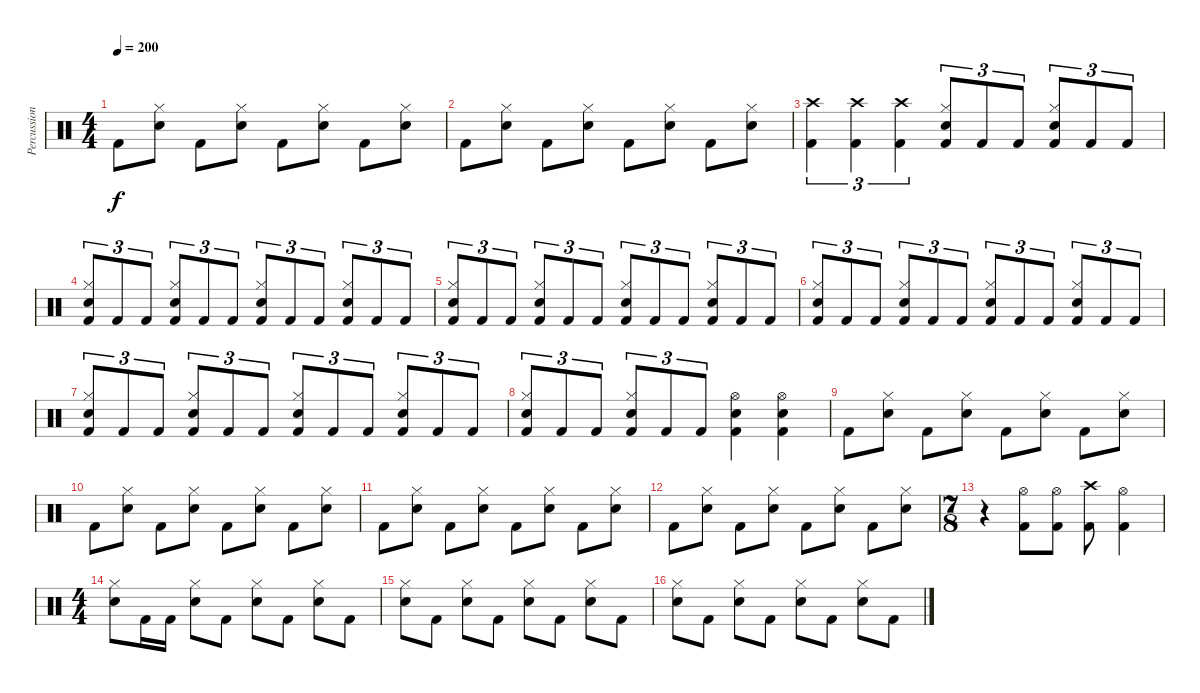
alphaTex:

\track ("Percussion" "Percussion") {instrument percussion}
\staff {score}
\articulation defaults
\ts (4 4)
\tempo 200
\clef neutral
\ks c "Kick (hit) 2".8{dy f}
("Hi-Hat (closed)" "Snare (hit) 2").8 "Kick (hit) 2".8 ("Hi-Hat (closed)" "Snare (hit) 2").8 "Kick (hit) 2".8 ("Hi-Hat (closed)" "Snare (hit) 2").8 "Kick (hit) 2".8 ("Hi-Hat (closed)" "Snare (hit) 2").8 |
"Kick (hit) 2".8 ("Hi-Hat (closed)" "Snare (hit) 2").8 "Kick (hit) 2".8 ("Hi-Hat (closed)" "Snare (hit) 2").8 "Kick (hit) 2".8 ("Hi-Hat (closed)" "Snare (hit) 2").8 "Kick (hit) 2".8 ("Hi-Hat (closed)" "Snare (hit) 2").8 |
("Crash high (hit)" "Kick (hit) 2").4{tu (3 2)} ("Crash high (hit)" "Kick (hit) 2").4{tu (3 2)} ("Crash high (hit)" "Kick (hit) 2").4{tu (3 2)} ("Hi-Hat (closed)" "Snare (hit) 2" "Kick (hit) 2").8{tu (3 2)} "Kick (hit) 2".8{tu (3 2)} "Kick (hit) 2".8{tu (3 2)} ("Hi-Hat (closed)" "Snare (hit) 2" "Kick (hit) 2").8{tu (3 2)} "Kick (hit) 2".8{tu (3 2)} "Kick (hit) 2".8{tu (3 2)} |
("Hi-Hat (closed)" "Snare (hit) 2" "Kick (hit) 2").8{tu (3 2)} "Kick (hit) 2".8{tu (3 2)} "Kick (hit) 2".8{tu (3 2)} ("Hi-Hat (closed)" "Snare (hit) 2" "Kick (hit) 2").8{tu (3 2)} "Kick (hit) 2".8{tu (3 2)} "Kick (hit) 2".8{tu (3 2)} ("Hi-Hat (closed)" "Snare (hit) 2" "Kick (hit) 2").8{tu (3 2)} "Kick (hit) 2".8{tu (3 2)} "Kick (hit) 2".8{tu (3 2)} ("Hi-Hat (closed)" "Snare (hit) 2" "Kick (hit) 2").8{tu (3 2)} "Kick (hit) 2".8{tu (3 2)} "Kick (hit) 2".8{tu (3 2)} |
("Hi-Hat (closed)" "Snare (hit) 2" "Kick (hit) 2").8{tu (3 2)} "Kick (hit) 2".8{tu (3 2)} "Kick (hit) 2".8{tu (3 2)} ("Hi-Hat (closed)" "Snare (hit) 2" "Kick (hit) 2").8{tu (3 2)} "Kick (hit) 2".8{tu (3 2)} "Kick (hit) 2".8{tu (3 2)} ("Hi-Hat (closed)" "Snare (hit) 2" "Kick (hit) 2").8{tu (3 2)} "Kick (hit) 2".8{tu (3 2)} "Kick (hit) 2".8{tu (3 2)} ("Hi-Hat (closed)" "Snare (hit) 2" "Kick (hit) 2").8{tu (3 2)} "Kick (hit) 2".8{tu (3 2)} "Kick (hit) 2".8{tu (3 2)} |
("Hi-Hat (closed)" "Snare (hit) 2" "Kick (hit) 2").8{tu (3 2)} "Kick (hit) 2".8{tu (3 2)} "Kick (hit) 2".8{tu (3 2)} ("Hi-Hat (closed)" "Snare (hit) 2" "Kick (hit) 2").8{tu (3 2)} "Kick (hit) 2".8{tu (3 2)} "Kick (hit) 2".8{tu (3 2)} ("Hi-Hat (closed)" "Snare (hit) 2" "Kick (hit) 2").8{tu (3 2)} "Kick (hit) 2".8{tu (3 2)} "Kick (hit) 2".8{tu (3 2)} ("Hi-Hat (closed)" "Snare (hit) 2" "Kick (hit) 2").8{tu (3 2)} "Kick (hit) 2".8{tu (3 2)} "Kick (hit) 2".8{tu (3 2)} |
("Hi-Hat (closed)" "Snare (hit) 2" "Kick (hit) 2").8{tu (3 2)} "Kick (hit) 2".8{tu (3 2)} "Kick (hit) 2".8{tu (3 2)} ("Hi-Hat (closed)" "Snare (hit) 2" "Kick (hit) 2").8{tu (3 2)} "Kick (hit) 2".8{tu (3 2)} "Kick (hit) 2".8{tu (3 2)} ("Hi-Hat (closed)" "Snare (hit) 2" "Kick (hit) 2").8{tu (3 2)} "Kick (hit) 2".8{tu (3 2)} "Kick (hit) 2".8{tu (3 2)} ("Hi-Hat (closed)" "Snare (hit) 2" "Kick (hit) 2").8{tu (3 2)} "Kick (hit) 2".8{tu (3 2)} "Kick (hit) 2".8{tu (3 2)} |
("Hi-Hat (closed)" "Snare (hit) 2" "Kick (hit) 2").8{tu (3 2)} "Kick (hit) 2".8{tu (3 2)} "Kick (hit) 2".8{tu (3 2)} ("Hi-Hat (closed)" "Snare (hit) 2" "Kick (hit) 2").8{tu (3 2)} "Kick (hit) 2".8{tu (3 2)} "Kick (hit) 2".8{tu (3 2)} ("Hi-Hat (open)" "Snare (hit) 2" "Kick (hit) 2").4 ("Hi-Hat (open)" "Snare (hit) 2" "Kick (hit) 2").4 |
"Kick (hit) 2".8 ("Hi-Hat (closed)" "Snare (hit) 2").8 "Kick (hit) 2".8 ("Hi-Hat (closed)" "Snare (hit) 2").8 "Kick (hit) 2".8 ("Hi-Hat (closed)" "Snare (hit) 2").8 "Kick (hit) 2".8 ("Hi-Hat (closed)" "Snare (hit) 2").8 |
"Kick (hit) 2".8 ("Hi-Hat (closed)" "Snare (hit) 2").8 "Kick (hit) 2".8 ("Hi-Hat (closed)" "Snare (hit) 2").8 "Kick (hit) 2".8 ("Hi-Hat (closed)" "Snare (hit) 2").8 "Kick (hit) 2".8 ("Hi-Hat (closed)" "Snare (hit) 2").8 |
"Kick (hit) 2".8 ("Hi-Hat (closed)" "Snare (hit) 2").8 "Kick (hit) 2".8 ("Hi-Hat (closed)" "Snare (hit) 2").8 "Kick (hit) 2".8 ("Hi-Hat (closed)" "Snare (hit) 2").8 "Kick (hit) 2".8 ("Hi-Hat (closed)" "Snare (hit) 2").8 |
"Kick (hit) 2".8 ("Hi-Hat (closed)" "Snare (hit) 2").8 "Kick (hit) 2".8 ("Hi-Hat (closed)" "Snare (hit) 2").8 "Kick (hit) 2".8 ("Hi-Hat (closed)" "Snare (hit) 2").8 "Kick (hit) 2".8 ("Hi-Hat (closed)" "Snare (hit) 2").8 |
\ts (7 8)
r.4 ("Hi-Hat (open)" "Kick (hit) 2").8 ("Hi-Hat (open)" "Kick (hit) 2").8 ("Crash high (hit)" "Kick (hit) 2").8 ("Hi-Hat (open)" "Kick (hit) 2").4 |
\ts (4 4)
("Hi-Hat (closed)" "Snare (hit) 2").8 "Kick (hit) 2".16 "Kick (hit) 2".16 ("Hi-Hat (closed)" "Snare (hit) 2").8 "Kick (hit) 2".8 ("Hi-Hat (closed)" "Snare (hit) 2").8 "Kick (hit) 2".8 ("Hi-Hat (closed)" "Snare (hit) 2").8 "Kick (hit) 2".8 |
("Hi-Hat (closed)" "Snare (hit) 2").8 "Kick (hit) 2".8 ("Hi-Hat (closed)" "Snare (hit) 2").8 "Kick (hit) 2".8 ("Hi-Hat (closed)" "Snare (hit) 2").8 "Kick (hit) 2".8 ("Hi-Hat (closed)" "Snare (hit) 2").8 "Kick (hit) 2".8 |
("Hi-Hat (closed)" "Snare (hit) 2").8 "Kick (hit) 2".8 ("Hi-Hat (closed)" "Snare (hit) 2").8 "Kick (hit) 2".8 ("Hi-Hat (closed)" "Snare (hit) 2").8 "Kick (hit) 2".8 ("Hi-Hat (closed)" "Snare (hit) 2").8 "Kick (hit) 2".8
